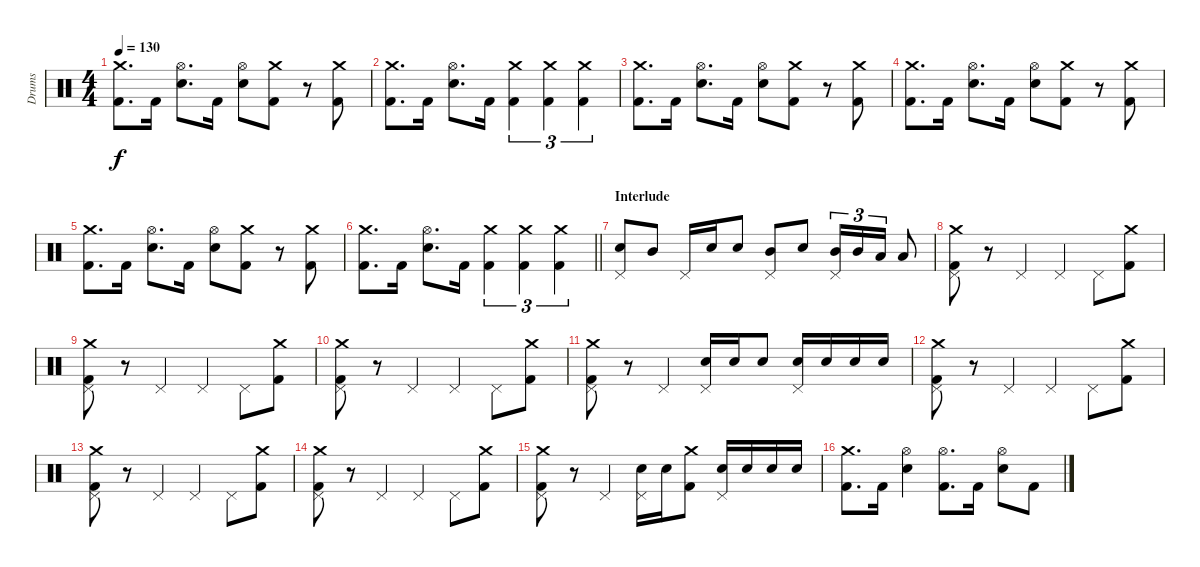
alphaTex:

\track ("Drums" "Drums") {instrument percussion}
\staff {score}
\articulation defaults
\ts (4 4)
\tempo 130
\clef neutral
\ks c
("Crash medium (hit)" "Kick (hit) 2").8{d dy f} "Kick (hit) 2".16 ("Hi-Hat (open)" "Snare (hit) 2").8{d} "Kick (hit) 2".16 ("Hi-Hat (open)" "Snare (hit) 2").8 ("Crash medium (hit)" "Kick (hit) 2").8 r.8 ("Crash medium (hit)" "Kick (hit) 2").8 |
("Crash medium (hit)" "Kick (hit) 2").8{d} "Kick (hit) 2".16 ("Hi-Hat (open)" "Snare (hit) 2").8{d} "Kick (hit) 2".16 ("Crash medium (hit)" "Kick (hit) 2").4{tu (3 2)} ("Crash medium (hit)" "Kick (hit) 2").4{tu (3 2)} ("Crash medium (hit)" "Kick (hit) 2").4{tu (3 2)} |
("Crash medium (hit)" "Kick (hit) 2").8{d} "Kick (hit) 2".16 ("Hi-Hat (open)" "Snare (hit) 2").8{d} "Kick (hit) 2".16 ("Hi-Hat (open)" "Snare (hit) 2").8 ("Crash medium (hit)" "Kick (hit) 2").8 r.8 ("Crash medium (hit)" "Kick (hit) 2").8 |
("Crash medium (hit)" "Kick (hit) 2").8{d} "Kick (hit) 2".16 ("Hi-Hat (open)" "Snare (hit) 2").8{d} "Kick (hit) 2".16 ("Hi-Hat (open)" "Snare (hit) 2").8 ("Crash medium (hit)" "Kick (hit) 2").8 r.8 ("Crash medium (hit)" "Kick (hit) 2").8 |
("Crash medium (hit)" "Kick (hit) 2").8{d} "Kick (hit) 2".16 ("Hi-Hat (open)" "Snare (hit) 2").8{d} "Kick (hit) 2".16 ("Hi-Hat (open)" "Snare (hit) 2").8 ("Crash medium (hit)" "Kick (hit) 2").8 r.8 ("Crash medium (hit)" "Kick (hit) 2").8 |
\barLineRight lightlight
("Crash medium (hit)" "Kick (hit) 2").8{d} "Kick (hit) 2".16 ("Hi-Hat (open)" "Snare (hit) 2").8{d} "Kick (hit) 2".16 ("Crash medium (hit)" "Kick (hit) 2").4{tu (3 2)} ("Crash medium (hit)" "Kick (hit) 2").4{tu (3 2)} ("Crash medium (hit)" "Kick (hit) 2").4{tu (3 2)} |
\section ("" "Interlude")
("Pedal Hi-Hat (hit)" "Snare (hit) 2").8 "Mid Tom (hit)".8 "Pedal Hi-Hat (hit)".16 "Snare (hit) 2".16 "Snare (hit) 2".8 ("Pedal Hi-Hat (hit)" "Mid Tom (hit)").8 "Snare (hit) 2".8 ("Pedal Hi-Hat (hit)" "Mid Tom (hit)").16{tu (3 2)} "Mid Tom (hit)".16{tu (3 2)} "Low Tom (hit)".16{tu (3 2)} "Low Tom (hit)".8 |
("Pedal Hi-Hat (hit)" "Crash medium (hit)" "Kick (hit) 2").8 r.8 "Pedal Hi-Hat (hit)".4 "Pedal Hi-Hat (hit)".4 "Pedal Hi-Hat (hit)".8 ("Crash medium (hit)" "Kick (hit) 2").8 |
("Pedal Hi-Hat (hit)" "Crash medium (hit)" "Kick (hit) 2").8 r.8 "Pedal Hi-Hat (hit)".4 "Pedal Hi-Hat (hit)".4 "Pedal Hi-Hat (hit)".8 ("Crash medium (hit)" "Kick (hit) 2").8 |
("Pedal Hi-Hat (hit)" "Crash medium (hit)" "Kick (hit) 2").8 r.8 "Pedal Hi-Hat (hit)".4 "Pedal Hi-Hat (hit)".4 "Pedal Hi-Hat (hit)".8 ("Crash medium (hit)" "Kick (hit) 2").8 |
("Pedal Hi-Hat (hit)" "Crash medium (hit)" "Kick (hit) 2").8 r.8 "Pedal Hi-Hat (hit)".4 ("Pedal Hi-Hat (hit)" "Snare (hit) 2").16 "Snare (hit) 2".16 "Snare (hit) 2".8 ("Pedal Hi-Hat (hit)" "Snare (hit) 2").16 "Snare (hit) 2".16 "Snare (hit) 2".16 "Snare (hit) 2".16 |
("Pedal Hi-Hat (hit)" "Crash medium (hit)" "Kick (hit) 2").8 r.8 "Pedal Hi-Hat (hit)".4 "Pedal Hi-Hat (hit)".4 "Pedal Hi-Hat (hit)".8 ("Crash medium (hit)" "Kick (hit) 2").8 |
("Pedal Hi-Hat (hit)" "Crash medium (hit)" "Kick (hit) 2").8 r.8 "Pedal Hi-Hat (hit)".4 "Pedal Hi-Hat (hit)".4 "Pedal Hi-Hat (hit)".8 ("Crash medium (hit)" "Kick (hit) 2").8 |
("Pedal Hi-Hat (hit)" "Crash medium (hit)" "Kick (hit) 2").8 r.8 "Pedal Hi-Hat (hit)".4 "Pedal Hi-Hat (hit)".4 "Pedal Hi-Hat (hit)".8 ("Crash medium (hit)" "Kick (hit) 2").8 |
("Pedal Hi-Hat (hit)" "Crash medium (hit)" "Kick (hit) 2").8 r.8 "Pedal Hi-Hat (hit)".4 ("Pedal Hi-Hat (hit)" "Snare (hit) 2").16 "Snare (hit) 2".16 ("Crash medium (hit)" "Kick (hit) 2").8 ("Pedal Hi-Hat (hit)" "Snare (hit) 2").16 "Snare (hit) 2".16 "Snare (hit) 2".16 "Snare (hit) 2".16 |
("Crash medium (hit)" "Kick (hit) 2").8{d} "Kick (hit) 2".16 ("Hi-Hat (open)" "Snare (hit) 2").4 ("Hi-Hat (open)" "Kick (hit) 2").8{d} "Kick (hit) 2".16 ("Hi-Hat (open)" "Snare (hit) 2").8 "Kick (hit) 2".8
